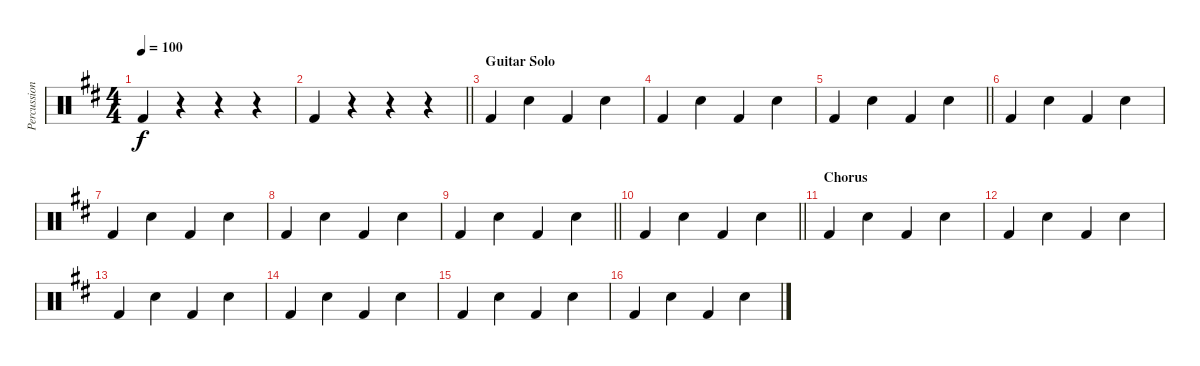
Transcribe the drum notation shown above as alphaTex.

\track ("Percussion" "Percussion") {instrument percussion}
\staff {score}
\articulation defaults
\ts (4 4)
\tempo 100
\clef neutral
\ks d "Kick (hit) 2".4{dy f}
r.4 r.4 r.4 |
\barLineRight lightlight "Kick (hit) 2".4
r.4 r.4 r.4 |
\section ("" "Guitar Solo")
"Kick (hit) 2".4 "Electric Snare (hit)".4 "Kick (hit) 2".4 "Electric Snare (hit)".4 |
"Kick (hit) 2".4 "Electric Snare (hit)".4 "Kick (hit) 2".4 "Electric Snare (hit)".4 |
\barLineRight lightlight "Kick (hit) 2".4 "Electric Snare (hit)".4 "Kick (hit) 2".4 "Electric Snare (hit)".4
|
"Kick (hit) 2".4 "Electric Snare (hit)".4 "Kick (hit) 2".4 "Electric Snare (hit)".4 |
"Kick (hit) 2".4 "Electric Snare (hit)".4 "Kick (hit) 2".4 "Electric Snare (hit)".4 |
"Kick (hit) 2".4 "Electric Snare (hit)".4 "Kick (hit) 2".4 "Electric Snare (hit)".4 |
\barLineRight lightlight "Kick (hit) 2".4 "Electric Snare (hit)".4 "Kick (hit) 2".4 "Electric Snare (hit)".4
|
\barLineRight lightlight "Kick (hit) 2".4 "Electric Snare (hit)".4 "Kick (hit) 2".4 "Electric Snare (hit)".4
|
\section ("" "Chorus")
"Kick (hit) 2".4 "Electric Snare (hit)".4 "Kick (hit) 2".4 "Electric Snare (hit)".4 |
"Kick (hit) 2".4 "Electric Snare (hit)".4 "Kick (hit) 2".4 "Electric Snare (hit)".4 |
"Kick (hit) 2".4 "Electric Snare (hit)".4 "Kick (hit) 2".4 "Electric Snare (hit)".4 |
"Kick (hit) 2".4 "Electric Snare (hit)".4 "Kick (hit) 2".4 "Electric Snare (hit)".4 |
"Kick (hit) 2".4 "Electric Snare (hit)".4 "Kick (hit) 2".4 "Electric Snare (hit)".4 |
"Kick (hit) 2".4 "Electric Snare (hit)".4 "Kick (hit) 2".4 "Electric Snare (hit)".4
